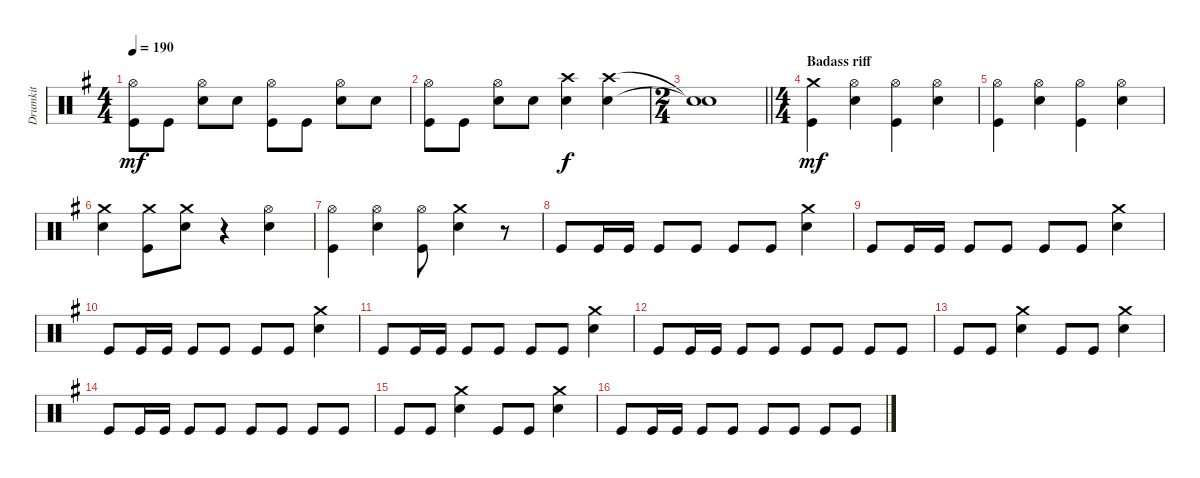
\track ("Drumkit" "Drumkit") {instrument percussion}
\staff {score}
\articulation defaults
\ts (4 4)
\tempo 190
\clef neutral
\ks eminor
("Kick (hit)" "Hi-Hat (open)").8{dy mf} "Kick (hit)".8 ("Snare (hit) 2" "Hi-Hat (open)").8 "Snare (hit) 2".8 ("Kick (hit)" "Hi-Hat (open)").8 "Kick (hit)".8 ("Snare (hit) 2" "Hi-Hat (open)").8 "Snare (hit) 2".8 |
("Kick (hit)" "Hi-Hat (open)").8 "Kick (hit)".8 ("Snare (hit) 2" "Hi-Hat (open)").8 "Snare (hit) 2".8 ("Snare (hit) 2" "Crash high (hit)").4{dy f} ("Snare (hit) 2" "Crash high (hit)").4 |
\ts (2 4)
\barLineRight lightlight
("Snare (hit)"{t} "Snare (hit)"{t}).1 |
\ts (4 4)
\section ("" "Badass riff")
("Kick (hit)" "Crash medium (hit)").4{dy mf} ("Snare (hit) 2" "Hi-Hat (open)").4 ("Kick (hit)" "Hi-Hat (open)").4 ("Snare (hit) 2" "Hi-Hat (open)").4 |
("Kick (hit)" "Hi-Hat (open)").4 ("Snare (hit) 2" "Hi-Hat (open)").4 ("Kick (hit)" "Hi-Hat (open)").4 ("Snare (hit) 2" "Hi-Hat (open)").4 |
("Snare (hit) 2" "Crash medium (hit)").4 ("Kick (hit)" "Crash medium (hit)").8 ("Snare (hit) 2" "Crash medium (hit)").8 r.4 ("Snare (hit) 2" "Hi-Hat (open)").4 |
("Kick (hit)" "Hi-Hat (open)").4 ("Snare (hit) 2" "Hi-Hat (open)").4 ("Kick (hit)" "Hi-Hat (open)").8 ("Snare (hit) 2" "Crash medium (hit)").4 r.8 |
"Kick (hit)".8 "Kick (hit)".16 "Kick (hit)".16 "Kick (hit)".8 "Kick (hit)".8 "Kick (hit)".8 "Kick (hit)".8 ("Snare (hit) 2" "Crash medium (hit)").4 |
"Kick (hit)".8 "Kick (hit)".16 "Kick (hit)".16 "Kick (hit)".8 "Kick (hit)".8 "Kick (hit)".8 "Kick (hit)".8 ("Snare (hit) 2" "Crash medium (hit)").4 |
"Kick (hit)".8 "Kick (hit)".16 "Kick (hit)".16 "Kick (hit)".8 "Kick (hit)".8 "Kick (hit)".8 "Kick (hit)".8 ("Snare (hit) 2" "Crash medium (hit)").4 |
"Kick (hit)".8 "Kick (hit)".16 "Kick (hit)".16 "Kick (hit)".8 "Kick (hit)".8 "Kick (hit)".8 "Kick (hit)".8 ("Snare (hit) 2" "Crash medium (hit)").4 |
"Kick (hit)".8 "Kick (hit)".16 "Kick (hit)".16 "Kick (hit)".8 "Kick (hit)".8 "Kick (hit)".8 "Kick (hit)".8 "Kick (hit)".8 "Kick (hit)".8 |
"Kick (hit)".8 "Kick (hit)".8 ("Snare (hit) 2" "Crash medium (hit)").4 "Kick (hit)".8 "Kick (hit)".8 ("Snare (hit) 2" "Crash medium (hit)").4 |
"Kick (hit)".8 "Kick (hit)".16 "Kick (hit)".16 "Kick (hit)".8 "Kick (hit)".8 "Kick (hit)".8 "Kick (hit)".8 "Kick (hit)".8 "Kick (hit)".8 |
"Kick (hit)".8 "Kick (hit)".8 ("Snare (hit) 2" "Crash medium (hit)").4 "Kick (hit)".8 "Kick (hit)".8 ("Snare (hit) 2" "Crash medium (hit)").4 |
"Kick (hit)".8 "Kick (hit)".16 "Kick (hit)".16 "Kick (hit)".8 "Kick (hit)".8 "Kick (hit)".8 "Kick (hit)".8 "Kick (hit)".8 "Kick (hit)".8
